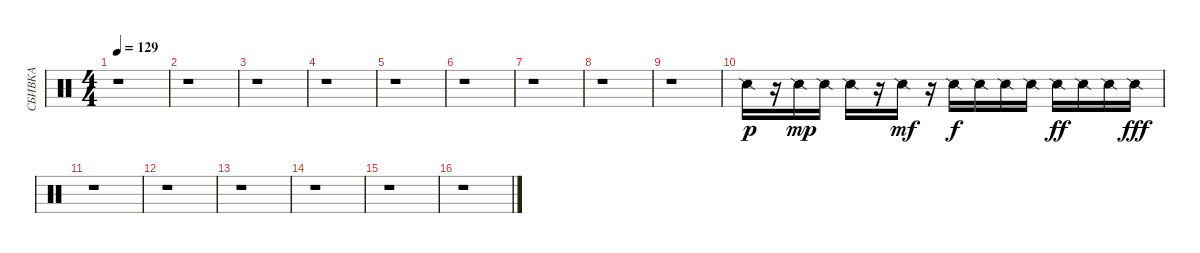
\track ("СБИВКА" "СБИВКА") {instrument percussion}
\staff {score}
\articulation defaults
\ts (4 4)
\tempo 129
\clef neutral
\ks c
r.1{dy fff} |
r.1 |
r.1 |
r.1 |
r.1 |
r.1 |
r.1 |
r.1 |
r.1 |
"Snare (side stick) 2".16{dy p} r.16 "Snare (side stick) 2".16{dy mp} "Snare (side stick) 2".16 "Snare (side stick) 2".16 r.16 "Snare (side stick) 2".16{dy mf} r.16 "Snare (side stick) 2".16{dy f} "Snare (side stick) 2".16 "Snare (side stick) 2".16 "Snare (side stick) 2".16 "Snare (side stick) 2".16{dy ff} "Snare (side stick) 2".16 "Snare (side stick) 2".16 "Snare (side stick) 2".16{dy fff} |
r.1 |
r.1 |
r.1 |
r.1 |
r.1 |
r.1
